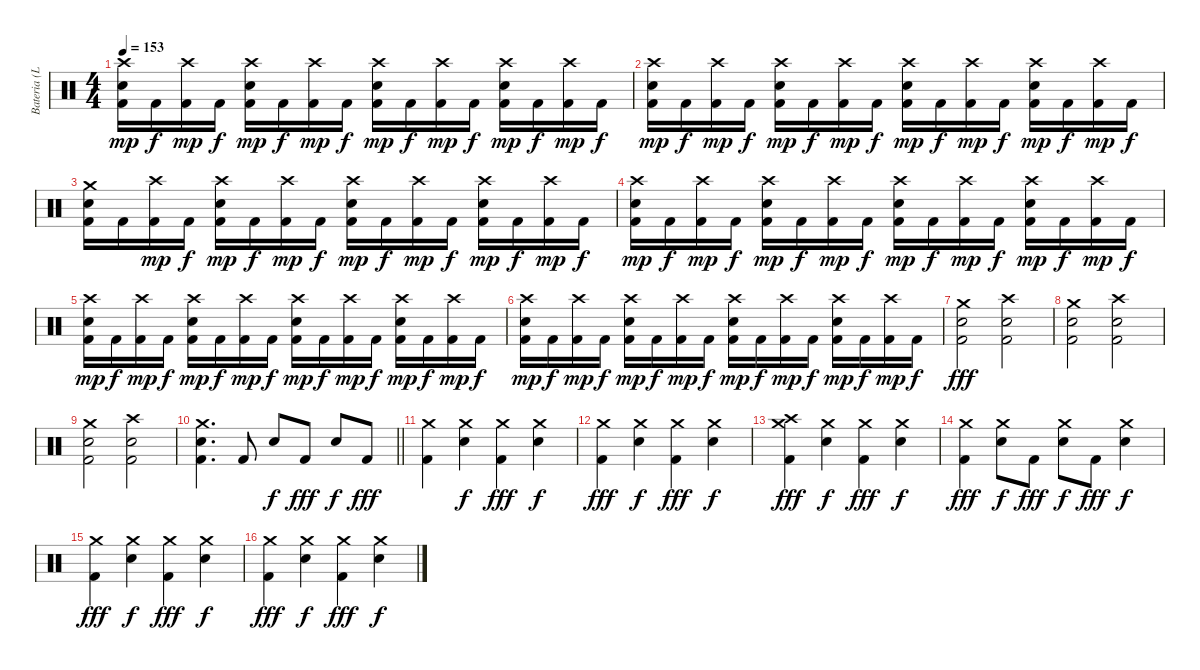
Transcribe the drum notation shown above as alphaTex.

\track ("Bateria (Lars)" "Bateria (L") {instrument percussion}
\staff {score}
\articulation defaults
\ts (4 4)
\tempo 153
\clef neutral
\ks c
("Crash high (hit)" "Electric Snare (hit)" "Kick (hit) 2").16{dy mp} "Kick (hit) 2".16{dy f} ("Crash high (hit)" "Kick (hit) 2").16{dy mp} "Kick (hit) 2".16{dy f} ("Crash high (hit)" "Electric Snare (hit)" "Kick (hit) 2").16{dy mp} "Kick (hit) 2".16{dy f} ("Crash high (hit)" "Kick (hit) 2").16{dy mp} "Kick (hit) 2".16{dy f} ("Crash high (hit)" "Electric Snare (hit)" "Kick (hit) 2").16{dy mp} "Kick (hit) 2".16{dy f} ("Crash high (hit)" "Kick (hit) 2").16{dy mp} "Kick (hit) 2".16{dy f} ("Crash high (hit)" "Electric Snare (hit)" "Kick (hit) 2").16{dy mp} "Kick (hit) 2".16{dy f} ("Crash high (hit)" "Kick (hit) 2").16{dy mp} "Kick (hit) 2".16{dy f} |
("Crash high (hit)" "Electric Snare (hit)" "Kick (hit) 2").16{dy mp} "Kick (hit) 2".16{dy f} ("Crash high (hit)" "Kick (hit) 2").16{dy mp} "Kick (hit) 2".16{dy f} ("Crash high (hit)" "Electric Snare (hit)" "Kick (hit) 2").16{dy mp} "Kick (hit) 2".16{dy f} ("Crash high (hit)" "Kick (hit) 2").16{dy mp} "Kick (hit) 2".16{dy f} ("Crash high (hit)" "Electric Snare (hit)" "Kick (hit) 2").16{dy mp} "Kick (hit) 2".16{dy f} ("Crash high (hit)" "Kick (hit) 2").16{dy mp} "Kick (hit) 2".16{dy f} ("Crash high (hit)" "Electric Snare (hit)" "Kick (hit) 2").16{dy mp} "Kick (hit) 2".16{dy f} ("Crash high (hit)" "Kick (hit) 2").16{dy mp} "Kick (hit) 2".16{dy f} |
("Crash medium (hit)" "Electric Snare (hit)" "Kick (hit) 2").16 "Kick (hit) 2".16 ("Crash high (hit)" "Kick (hit) 2").16{dy mp} "Kick (hit) 2".16{dy f} ("Crash high (hit)" "Electric Snare (hit)" "Kick (hit) 2").16{dy mp} "Kick (hit) 2".16{dy f} ("Crash high (hit)" "Kick (hit) 2").16{dy mp} "Kick (hit) 2".16{dy f} ("Crash high (hit)" "Electric Snare (hit)" "Kick (hit) 2").16{dy mp} "Kick (hit) 2".16{dy f} ("Crash high (hit)" "Kick (hit) 2").16{dy mp} "Kick (hit) 2".16{dy f} ("Crash high (hit)" "Electric Snare (hit)" "Kick (hit) 2").16{dy mp} "Kick (hit) 2".16{dy f} ("Crash high (hit)" "Kick (hit) 2").16{dy mp} "Kick (hit) 2".16{dy f} |
("Crash high (hit)" "Electric Snare (hit)" "Kick (hit) 2").16{dy mp} "Kick (hit) 2".16{dy f} ("Crash high (hit)" "Kick (hit) 2").16{dy mp} "Kick (hit) 2".16{dy f} ("Crash high (hit)" "Electric Snare (hit)" "Kick (hit) 2").16{dy mp} "Kick (hit) 2".16{dy f} ("Crash high (hit)" "Kick (hit) 2").16{dy mp} "Kick (hit) 2".16{dy f} ("Crash high (hit)" "Electric Snare (hit)" "Kick (hit) 2").16{dy mp} "Kick (hit) 2".16{dy f} ("Crash high (hit)" "Kick (hit) 2").16{dy mp} "Kick (hit) 2".16{dy f} ("Crash high (hit)" "Electric Snare (hit)" "Kick (hit) 2").16{dy mp} "Kick (hit) 2".16{dy f} ("Crash high (hit)" "Kick (hit) 2").16{dy mp} "Kick (hit) 2".16{dy f} |
("Crash high (hit)" "Electric Snare (hit)" "Kick (hit) 2").16{dy mp} "Kick (hit) 2".16{dy f} ("Crash high (hit)" "Kick (hit) 2").16{dy mp} "Kick (hit) 2".16{dy f} ("Crash high (hit)" "Electric Snare (hit)" "Kick (hit) 2").16{dy mp} "Kick (hit) 2".16{dy f} ("Crash high (hit)" "Kick (hit) 2").16{dy mp} "Kick (hit) 2".16{dy f} ("Crash high (hit)" "Electric Snare (hit)" "Kick (hit) 2").16{dy mp} "Kick (hit) 2".16{dy f} ("Crash high (hit)" "Kick (hit) 2").16{dy mp} "Kick (hit) 2".16{dy f} ("Crash high (hit)" "Electric Snare (hit)" "Kick (hit) 2").16{dy mp} "Kick (hit) 2".16{dy f} ("Crash high (hit)" "Kick (hit) 2").16{dy mp} "Kick (hit) 2".16{dy f} |
("Crash high (hit)" "Electric Snare (hit)" "Kick (hit) 2").16{dy mp} "Kick (hit) 2".16{dy f} ("Crash high (hit)" "Kick (hit) 2").16{dy mp} "Kick (hit) 2".16{dy f} ("Crash high (hit)" "Electric Snare (hit)" "Kick (hit) 2").16{dy mp} "Kick (hit) 2".16{dy f} ("Crash high (hit)" "Kick (hit) 2").16{dy mp} "Kick (hit) 2".16{dy f} ("Crash high (hit)" "Electric Snare (hit)" "Kick (hit) 2").16{dy mp} "Kick (hit) 2".16{dy f} ("Crash high (hit)" "Kick (hit) 2").16{dy mp} "Kick (hit) 2".16{dy f} ("Crash high (hit)" "Electric Snare (hit)" "Kick (hit) 2").16{dy mp} "Kick (hit) 2".16{dy f} ("Crash high (hit)" "Kick (hit) 2").16{dy mp} "Kick (hit) 2".16{dy f} |
("Crash medium (hit)" "Electric Snare (hit)" "Kick (hit) 2").2{dy fff} ("Crash high (hit)" "Electric Snare (hit)" "Kick (hit) 2").2 |
("Crash medium (hit)" "Electric Snare (hit)" "Kick (hit) 2").2 ("Crash high (hit)" "Electric Snare (hit)" "Kick (hit) 2").2 |
("Crash medium (hit)" "Electric Snare (hit)" "Kick (hit) 2").2 ("Crash high (hit)" "Electric Snare (hit)" "Kick (hit) 2").2 |
\barLineRight lightlight
("Crash medium (hit)" "Electric Snare (hit)" "Kick (hit) 2").4{d} "Kick (hit) 2".8 "Electric Snare (hit)".8{dy f} "Kick (hit) 2".8{dy fff} "Electric Snare (hit)".8{dy f} "Kick (hit) 2".8{dy fff} |
("Crash medium (hit)" "Kick (hit) 2").4 ("Crash medium (hit)" "Electric Snare (hit)").4{dy f} ("Crash medium (hit)" "Kick (hit) 2").4{dy fff} ("Crash medium (hit)" "Electric Snare (hit)").4{dy f} |
("Crash medium (hit)" "Kick (hit) 2").4{dy fff} ("Crash medium (hit)" "Electric Snare (hit)").4{dy f} ("Crash medium (hit)" "Kick (hit) 2").4{dy fff} ("Crash medium (hit)" "Electric Snare (hit)").4{dy f} |
("Crash medium (hit)" "Crash high (hit)" "Kick (hit) 2").4{dy fff} ("Crash medium (hit)" "Electric Snare (hit)").4{dy f} ("Crash medium (hit)" "Kick (hit) 2").4{dy fff} ("Crash medium (hit)" "Electric Snare (hit)").4{dy f} |
("Crash medium (hit)" "Kick (hit) 2").4{dy fff} ("Crash medium (hit)" "Electric Snare (hit)").8{dy f} "Kick (hit) 2".8{dy fff} ("Crash medium (hit)" "Electric Snare (hit)").8{dy f} "Kick (hit) 2".8{dy fff} ("Crash medium (hit)" "Electric Snare (hit)").4{dy f} |
("Crash medium (hit)" "Kick (hit) 2").4{dy fff} ("Crash medium (hit)" "Electric Snare (hit)").4{dy f} ("Crash medium (hit)" "Kick (hit) 2").4{dy fff} ("Crash medium (hit)" "Electric Snare (hit)").4{dy f} |
("Crash medium (hit)" "Kick (hit) 2").4{dy fff} ("Crash medium (hit)" "Electric Snare (hit)").4{dy f} ("Crash medium (hit)" "Kick (hit) 2").4{dy fff} ("Crash medium (hit)" "Electric Snare (hit)").4{dy f}
